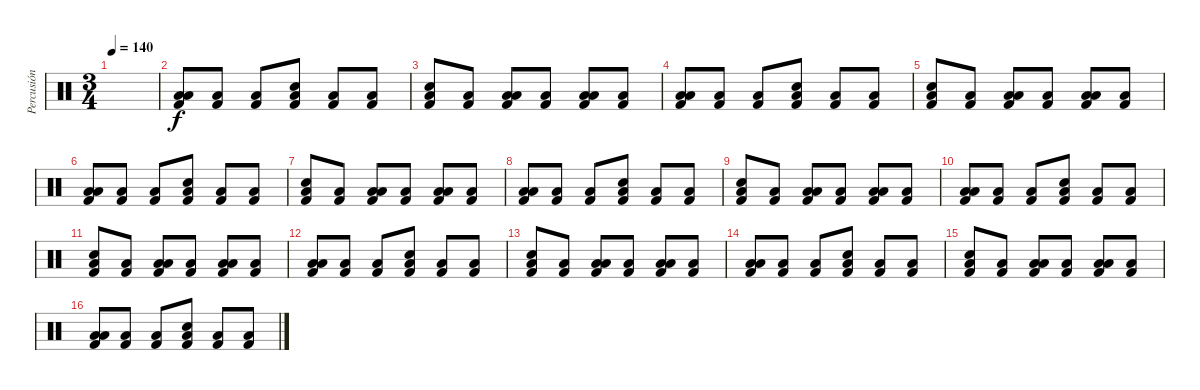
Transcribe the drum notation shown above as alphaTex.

\track ("Percusión" "Percusión") {instrument percussion}
\staff {score}
\articulation defaults
\ts (3 4)
\tempo 140
\clef neutral
\ks c
|
("Low Tom (hit)" "Low Floor Tom (hit)" "Kick (hit) 2").8 ("Low Floor Tom (hit)" "Kick (hit) 2").8 ("Low Floor Tom (hit)" "Kick (hit) 2").8 ("Electric Snare (hit)" "Low Floor Tom (hit)" "Kick (hit) 2").8 ("Low Floor Tom (hit)" "Kick (hit) 2").8 ("Low Floor Tom (hit)" "Kick (hit) 2").8 |
("Electric Snare (hit)" "Low Floor Tom (hit)" "Kick (hit) 2").8 ("Low Floor Tom (hit)" "Kick (hit) 2").8 ("Low Tom (hit)" "Low Floor Tom (hit)" "Kick (hit) 2").8 ("Low Floor Tom (hit)" "Kick (hit) 2").8 ("Low Tom (hit)" "Low Floor Tom (hit)" "Kick (hit) 2").8 ("Low Floor Tom (hit)" "Kick (hit) 2").8 |
("Low Tom (hit)" "Low Floor Tom (hit)" "Kick (hit) 2").8 ("Low Floor Tom (hit)" "Kick (hit) 2").8 ("Low Floor Tom (hit)" "Kick (hit) 2").8 ("Electric Snare (hit)" "Low Floor Tom (hit)" "Kick (hit) 2").8 ("Low Floor Tom (hit)" "Kick (hit) 2").8 ("Low Floor Tom (hit)" "Kick (hit) 2").8 |
("Electric Snare (hit)" "Low Floor Tom (hit)" "Kick (hit) 2").8 ("Low Floor Tom (hit)" "Kick (hit) 2").8 ("Low Tom (hit)" "Low Floor Tom (hit)" "Kick (hit) 2").8 ("Low Floor Tom (hit)" "Kick (hit) 2").8 ("Low Tom (hit)" "Low Floor Tom (hit)" "Kick (hit) 2").8 ("Low Floor Tom (hit)" "Kick (hit) 2").8 |
("Low Tom (hit)" "Low Floor Tom (hit)" "Kick (hit) 2").8 ("Low Floor Tom (hit)" "Kick (hit) 2").8 ("Low Floor Tom (hit)" "Kick (hit) 2").8 ("Electric Snare (hit)" "Low Floor Tom (hit)" "Kick (hit) 2").8 ("Low Floor Tom (hit)" "Kick (hit) 2").8 ("Low Floor Tom (hit)" "Kick (hit) 2").8 |
("Electric Snare (hit)" "Low Floor Tom (hit)" "Kick (hit) 2").8 ("Low Floor Tom (hit)" "Kick (hit) 2").8 ("Low Tom (hit)" "Low Floor Tom (hit)" "Kick (hit) 2").8 ("Low Floor Tom (hit)" "Kick (hit) 2").8 ("Low Tom (hit)" "Low Floor Tom (hit)" "Kick (hit) 2").8 ("Low Floor Tom (hit)" "Kick (hit) 2").8 |
("Low Tom (hit)" "Low Floor Tom (hit)" "Kick (hit) 2").8 ("Low Floor Tom (hit)" "Kick (hit) 2").8 ("Low Floor Tom (hit)" "Kick (hit) 2").8 ("Electric Snare (hit)" "Low Floor Tom (hit)" "Kick (hit) 2").8 ("Low Floor Tom (hit)" "Kick (hit) 2").8 ("Low Floor Tom (hit)" "Kick (hit) 2").8 |
("Electric Snare (hit)" "Low Floor Tom (hit)" "Kick (hit) 2").8 ("Low Floor Tom (hit)" "Kick (hit) 2").8 ("Low Tom (hit)" "Low Floor Tom (hit)" "Kick (hit) 2").8 ("Low Floor Tom (hit)" "Kick (hit) 2").8 ("Low Tom (hit)" "Low Floor Tom (hit)" "Kick (hit) 2").8 ("Low Floor Tom (hit)" "Kick (hit) 2").8 |
("Low Tom (hit)" "Low Floor Tom (hit)" "Kick (hit) 2").8 ("Low Floor Tom (hit)" "Kick (hit) 2").8 ("Low Floor Tom (hit)" "Kick (hit) 2").8 ("Electric Snare (hit)" "Low Floor Tom (hit)" "Kick (hit) 2").8 ("Low Floor Tom (hit)" "Kick (hit) 2").8 ("Low Floor Tom (hit)" "Kick (hit) 2").8 |
("Electric Snare (hit)" "Low Floor Tom (hit)" "Kick (hit) 2").8 ("Low Floor Tom (hit)" "Kick (hit) 2").8 ("Low Tom (hit)" "Low Floor Tom (hit)" "Kick (hit) 2").8 ("Low Floor Tom (hit)" "Kick (hit) 2").8 ("Low Tom (hit)" "Low Floor Tom (hit)" "Kick (hit) 2").8 ("Low Floor Tom (hit)" "Kick (hit) 2").8 |
("Low Tom (hit)" "Low Floor Tom (hit)" "Kick (hit) 2").8 ("Low Floor Tom (hit)" "Kick (hit) 2").8 ("Low Floor Tom (hit)" "Kick (hit) 2").8 ("Electric Snare (hit)" "Low Floor Tom (hit)" "Kick (hit) 2").8 ("Low Floor Tom (hit)" "Kick (hit) 2").8 ("Low Floor Tom (hit)" "Kick (hit) 2").8 |
("Electric Snare (hit)" "Low Floor Tom (hit)" "Kick (hit) 2").8 ("Low Floor Tom (hit)" "Kick (hit) 2").8 ("Low Tom (hit)" "Low Floor Tom (hit)" "Kick (hit) 2").8 ("Low Floor Tom (hit)" "Kick (hit) 2").8 ("Low Tom (hit)" "Low Floor Tom (hit)" "Kick (hit) 2").8 ("Low Floor Tom (hit)" "Kick (hit) 2").8 |
("Low Tom (hit)" "Low Floor Tom (hit)" "Kick (hit) 2").8 ("Low Floor Tom (hit)" "Kick (hit) 2").8 ("Low Floor Tom (hit)" "Kick (hit) 2").8 ("Electric Snare (hit)" "Low Floor Tom (hit)" "Kick (hit) 2").8 ("Low Floor Tom (hit)" "Kick (hit) 2").8 ("Low Floor Tom (hit)" "Kick (hit) 2").8 |
("Electric Snare (hit)" "Low Floor Tom (hit)" "Kick (hit) 2").8 ("Low Floor Tom (hit)" "Kick (hit) 2").8 ("Low Tom (hit)" "Low Floor Tom (hit)" "Kick (hit) 2").8 ("Low Floor Tom (hit)" "Kick (hit) 2").8 ("Low Tom (hit)" "Low Floor Tom (hit)" "Kick (hit) 2").8 ("Low Floor Tom (hit)" "Kick (hit) 2").8 |
("Low Tom (hit)" "Low Floor Tom (hit)" "Kick (hit) 2").8 ("Low Floor Tom (hit)" "Kick (hit) 2").8 ("Low Floor Tom (hit)" "Kick (hit) 2").8 ("Electric Snare (hit)" "Low Floor Tom (hit)" "Kick (hit) 2").8 ("Low Floor Tom (hit)" "Kick (hit) 2").8 ("Low Floor Tom (hit)" "Kick (hit) 2").8
